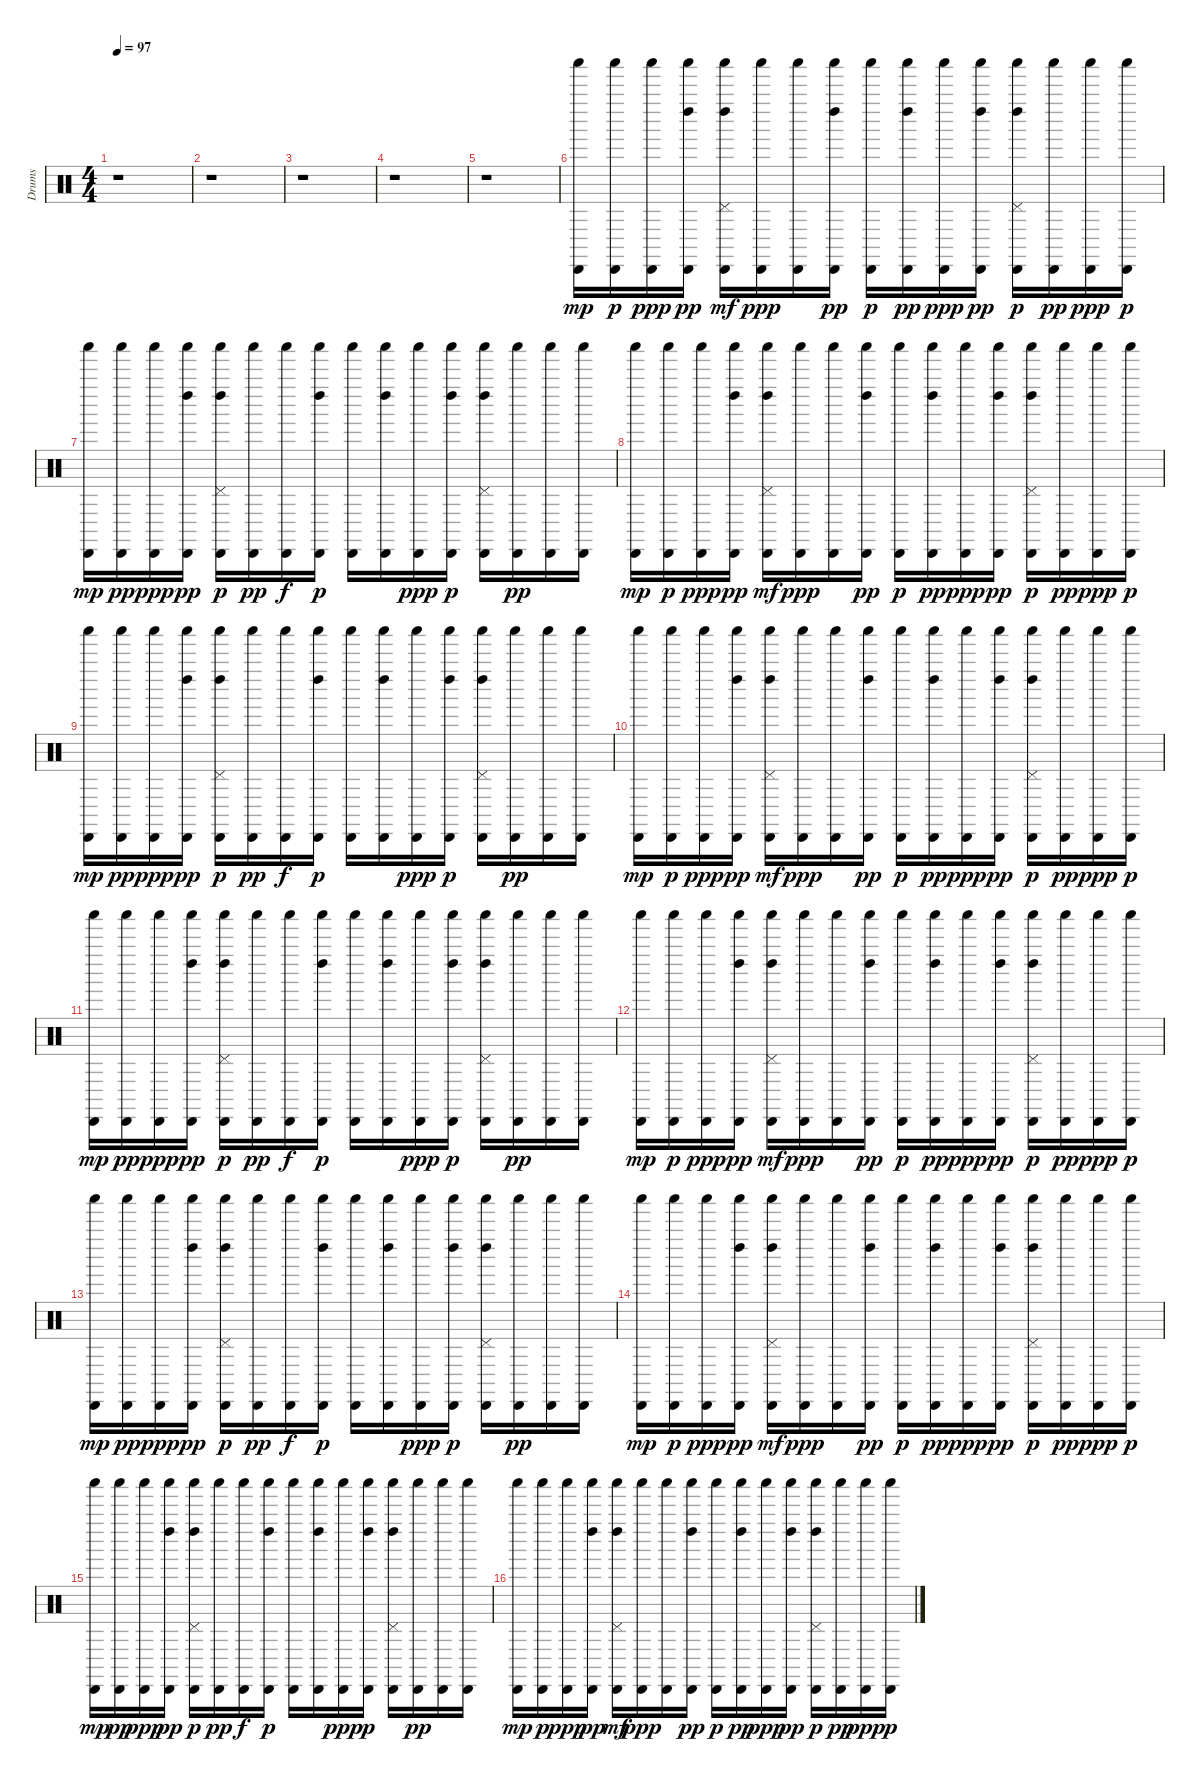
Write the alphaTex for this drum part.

\track ("Drums" "Drums") {instrument percussion}
\staff {score}
\articulation defaults
\ts (4 4)
\tempo 97
\clef neutral
\ks c
r.1{dy mp} |
r.1 |
r.1 |
r.1 |
r.1 |
("Shaker (hit)" "Cabasa (hit)").16 ("Shaker (hit)" "Cabasa (hit)").16{dy p} ("Shaker (hit)" "Cabasa (hit)").16{dy ppp} ("Shaker (hit)" "Cabasa (hit)" "Left Maraca (hit)").16{dy pp} ("Left Maraca (hit)" "Shaker (hit)" "Cabasa (hit)" "Pedal Hi-Hat (hit)").16{dy mf} ("Cabasa (hit)" "Shaker (hit)").16{dy ppp} ("Shaker (hit)" "Cabasa (hit)").16 ("Left Maraca (hit)" "Cabasa (hit)" "Shaker (hit)").16{dy pp} ("Cabasa (hit)" "Shaker (hit)").16{dy p} ("Left Maraca (hit)" "Cabasa (hit)" "Shaker (hit)").16{dy pp} ("Shaker (hit)" "Cabasa (hit)").16{dy ppp} ("Shaker (hit)" "Cabasa (hit)" "Left Maraca (hit)").16{dy pp} ("Left Maraca (hit)" "Shaker (hit)" "Cabasa (hit)" "Pedal Hi-Hat (hit)").16{dy p} ("Cabasa (hit)" "Shaker (hit)").16{dy pp} ("Shaker (hit)" "Cabasa (hit)").16{dy ppp} ("Shaker (hit)" "Cabasa (hit)").16{dy p} |
("Shaker (hit)" "Cabasa (hit)").16{dy mp} ("Cabasa (hit)" "Shaker (hit)").16{dy pp} ("Shaker (hit)" "Cabasa (hit)").16{dy ppp} ("Shaker (hit)" "Cabasa (hit)" "Left Maraca (hit)").16{dy pp} ("Shaker (hit)" "Cabasa (hit)" "Pedal Hi-Hat (hit)" "Left Maraca (hit)").16{dy p} ("Shaker (hit)" "Cabasa (hit)").16{dy pp} ("Shaker (hit)" "Cabasa (hit)").16{dy f} ("Shaker (hit)" "Cabasa (hit)" "Left Maraca (hit)").16{dy p} ("Cabasa (hit)" "Shaker (hit)").16 ("Shaker (hit)" "Cabasa (hit)" "Left Maraca (hit)").16 ("Shaker (hit)" "Cabasa (hit)").16{dy ppp} ("Shaker (hit)" "Cabasa (hit)" "Left Maraca (hit)").16{dy p} ("Pedal Hi-Hat (hit)" "Shaker (hit)" "Cabasa (hit)" "Left Maraca (hit)").16 ("Shaker (hit)" "Cabasa (hit)").16{dy pp} ("Cabasa (hit)" "Shaker (hit)").16 ("Cabasa (hit)" "Shaker (hit)").16 |
("Shaker (hit)" "Cabasa (hit)").16{dy mp} ("Shaker (hit)" "Cabasa (hit)").16{dy p} ("Shaker (hit)" "Cabasa (hit)").16{dy ppp} ("Shaker (hit)" "Cabasa (hit)" "Left Maraca (hit)").16{dy pp} ("Left Maraca (hit)" "Shaker (hit)" "Cabasa (hit)" "Pedal Hi-Hat (hit)").16{dy mf} ("Cabasa (hit)" "Shaker (hit)").16{dy ppp} ("Shaker (hit)" "Cabasa (hit)").16 ("Left Maraca (hit)" "Cabasa (hit)" "Shaker (hit)").16{dy pp} ("Cabasa (hit)" "Shaker (hit)").16{dy p} ("Left Maraca (hit)" "Cabasa (hit)" "Shaker (hit)").16{dy pp} ("Shaker (hit)" "Cabasa (hit)").16{dy ppp} ("Shaker (hit)" "Cabasa (hit)" "Left Maraca (hit)").16{dy pp} ("Left Maraca (hit)" "Shaker (hit)" "Cabasa (hit)" "Pedal Hi-Hat (hit)").16{dy p} ("Cabasa (hit)" "Shaker (hit)").16{dy pp} ("Shaker (hit)" "Cabasa (hit)").16{dy ppp} ("Shaker (hit)" "Cabasa (hit)").16{dy p} |
("Shaker (hit)" "Cabasa (hit)").16{dy mp} ("Cabasa (hit)" "Shaker (hit)").16{dy pp} ("Shaker (hit)" "Cabasa (hit)").16{dy ppp} ("Shaker (hit)" "Cabasa (hit)" "Left Maraca (hit)").16{dy pp} ("Shaker (hit)" "Cabasa (hit)" "Pedal Hi-Hat (hit)" "Left Maraca (hit)").16{dy p} ("Shaker (hit)" "Cabasa (hit)").16{dy pp} ("Shaker (hit)" "Cabasa (hit)").16{dy f} ("Shaker (hit)" "Cabasa (hit)" "Left Maraca (hit)").16{dy p} ("Cabasa (hit)" "Shaker (hit)").16 ("Shaker (hit)" "Cabasa (hit)" "Left Maraca (hit)").16 ("Shaker (hit)" "Cabasa (hit)").16{dy ppp} ("Shaker (hit)" "Cabasa (hit)" "Left Maraca (hit)").16{dy p} ("Pedal Hi-Hat (hit)" "Shaker (hit)" "Cabasa (hit)" "Left Maraca (hit)").16 ("Shaker (hit)" "Cabasa (hit)").16{dy pp} ("Cabasa (hit)" "Shaker (hit)").16 ("Cabasa (hit)" "Shaker (hit)").16 |
("Shaker (hit)" "Cabasa (hit)").16{dy mp} ("Shaker (hit)" "Cabasa (hit)").16{dy p} ("Shaker (hit)" "Cabasa (hit)").16{dy ppp} ("Shaker (hit)" "Cabasa (hit)" "Left Maraca (hit)").16{dy pp} ("Left Maraca (hit)" "Shaker (hit)" "Cabasa (hit)" "Pedal Hi-Hat (hit)").16{dy mf} ("Cabasa (hit)" "Shaker (hit)").16{dy ppp} ("Shaker (hit)" "Cabasa (hit)").16 ("Left Maraca (hit)" "Cabasa (hit)" "Shaker (hit)").16{dy pp} ("Cabasa (hit)" "Shaker (hit)").16{dy p} ("Left Maraca (hit)" "Cabasa (hit)" "Shaker (hit)").16{dy pp} ("Shaker (hit)" "Cabasa (hit)").16{dy ppp} ("Shaker (hit)" "Cabasa (hit)" "Left Maraca (hit)").16{dy pp} ("Left Maraca (hit)" "Shaker (hit)" "Cabasa (hit)" "Pedal Hi-Hat (hit)").16{dy p} ("Cabasa (hit)" "Shaker (hit)").16{dy pp} ("Shaker (hit)" "Cabasa (hit)").16{dy ppp} ("Shaker (hit)" "Cabasa (hit)").16{dy p} |
("Shaker (hit)" "Cabasa (hit)").16{dy mp} ("Cabasa (hit)" "Shaker (hit)").16{dy pp} ("Shaker (hit)" "Cabasa (hit)").16{dy ppp} ("Shaker (hit)" "Cabasa (hit)" "Left Maraca (hit)").16{dy pp} ("Shaker (hit)" "Cabasa (hit)" "Pedal Hi-Hat (hit)" "Left Maraca (hit)").16{dy p} ("Shaker (hit)" "Cabasa (hit)").16{dy pp} ("Shaker (hit)" "Cabasa (hit)").16{dy f} ("Shaker (hit)" "Cabasa (hit)" "Left Maraca (hit)").16{dy p} ("Cabasa (hit)" "Shaker (hit)").16 ("Shaker (hit)" "Cabasa (hit)" "Left Maraca (hit)").16 ("Shaker (hit)" "Cabasa (hit)").16{dy ppp} ("Shaker (hit)" "Cabasa (hit)" "Left Maraca (hit)").16{dy p} ("Pedal Hi-Hat (hit)" "Shaker (hit)" "Cabasa (hit)" "Left Maraca (hit)").16 ("Shaker (hit)" "Cabasa (hit)").16{dy pp} ("Cabasa (hit)" "Shaker (hit)").16 ("Cabasa (hit)" "Shaker (hit)").16 |
("Shaker (hit)" "Cabasa (hit)").16{dy mp} ("Shaker (hit)" "Cabasa (hit)").16{dy p} ("Shaker (hit)" "Cabasa (hit)").16{dy ppp} ("Shaker (hit)" "Cabasa (hit)" "Left Maraca (hit)").16{dy pp} ("Left Maraca (hit)" "Shaker (hit)" "Cabasa (hit)" "Pedal Hi-Hat (hit)").16{dy mf} ("Cabasa (hit)" "Shaker (hit)").16{dy ppp} ("Shaker (hit)" "Cabasa (hit)").16 ("Left Maraca (hit)" "Cabasa (hit)" "Shaker (hit)").16{dy pp} ("Cabasa (hit)" "Shaker (hit)").16{dy p} ("Left Maraca (hit)" "Cabasa (hit)" "Shaker (hit)").16{dy pp} ("Shaker (hit)" "Cabasa (hit)").16{dy ppp} ("Shaker (hit)" "Cabasa (hit)" "Left Maraca (hit)").16{dy pp} ("Left Maraca (hit)" "Shaker (hit)" "Cabasa (hit)" "Pedal Hi-Hat (hit)").16{dy p} ("Cabasa (hit)" "Shaker (hit)").16{dy pp} ("Shaker (hit)" "Cabasa (hit)").16{dy ppp} ("Shaker (hit)" "Cabasa (hit)").16{dy p} |
("Shaker (hit)" "Cabasa (hit)").16{dy mp} ("Cabasa (hit)" "Shaker (hit)").16{dy pp} ("Shaker (hit)" "Cabasa (hit)").16{dy ppp} ("Shaker (hit)" "Cabasa (hit)" "Left Maraca (hit)").16{dy pp} ("Shaker (hit)" "Cabasa (hit)" "Pedal Hi-Hat (hit)" "Left Maraca (hit)").16{dy p} ("Shaker (hit)" "Cabasa (hit)").16{dy pp} ("Shaker (hit)" "Cabasa (hit)").16{dy f} ("Shaker (hit)" "Cabasa (hit)" "Left Maraca (hit)").16{dy p} ("Cabasa (hit)" "Shaker (hit)").16 ("Shaker (hit)" "Cabasa (hit)" "Left Maraca (hit)").16 ("Shaker (hit)" "Cabasa (hit)").16{dy ppp} ("Shaker (hit)" "Cabasa (hit)" "Left Maraca (hit)").16{dy p} ("Pedal Hi-Hat (hit)" "Shaker (hit)" "Cabasa (hit)" "Left Maraca (hit)").16 ("Shaker (hit)" "Cabasa (hit)").16{dy pp} ("Cabasa (hit)" "Shaker (hit)").16 ("Cabasa (hit)" "Shaker (hit)").16 |
("Shaker (hit)" "Cabasa (hit)").16{dy mp} ("Shaker (hit)" "Cabasa (hit)").16{dy p} ("Shaker (hit)" "Cabasa (hit)").16{dy ppp} ("Shaker (hit)" "Cabasa (hit)" "Left Maraca (hit)").16{dy pp} ("Left Maraca (hit)" "Shaker (hit)" "Cabasa (hit)" "Pedal Hi-Hat (hit)").16{dy mf} ("Cabasa (hit)" "Shaker (hit)").16{dy ppp} ("Shaker (hit)" "Cabasa (hit)").16 ("Left Maraca (hit)" "Cabasa (hit)" "Shaker (hit)").16{dy pp} ("Cabasa (hit)" "Shaker (hit)").16{dy p} ("Left Maraca (hit)" "Cabasa (hit)" "Shaker (hit)").16{dy pp} ("Shaker (hit)" "Cabasa (hit)").16{dy ppp} ("Shaker (hit)" "Cabasa (hit)" "Left Maraca (hit)").16{dy pp} ("Left Maraca (hit)" "Shaker (hit)" "Cabasa (hit)" "Pedal Hi-Hat (hit)").16{dy p} ("Cabasa (hit)" "Shaker (hit)").16{dy pp} ("Shaker (hit)" "Cabasa (hit)").16{dy ppp} ("Shaker (hit)" "Cabasa (hit)").16{dy p} |
("Shaker (hit)" "Cabasa (hit)").16{dy mp} ("Cabasa (hit)" "Shaker (hit)").16{dy pp} ("Shaker (hit)" "Cabasa (hit)").16{dy ppp} ("Shaker (hit)" "Cabasa (hit)" "Left Maraca (hit)").16{dy pp} ("Shaker (hit)" "Cabasa (hit)" "Pedal Hi-Hat (hit)" "Left Maraca (hit)").16{dy p} ("Shaker (hit)" "Cabasa (hit)").16{dy pp} ("Shaker (hit)" "Cabasa (hit)").16{dy f} ("Shaker (hit)" "Cabasa (hit)" "Left Maraca (hit)").16{dy p} ("Cabasa (hit)" "Shaker (hit)").16 ("Shaker (hit)" "Cabasa (hit)" "Left Maraca (hit)").16 ("Shaker (hit)" "Cabasa (hit)").16{dy ppp} ("Shaker (hit)" "Cabasa (hit)" "Left Maraca (hit)").16{dy p} ("Pedal Hi-Hat (hit)" "Shaker (hit)" "Cabasa (hit)" "Left Maraca (hit)").16 ("Shaker (hit)" "Cabasa (hit)").16{dy pp} ("Cabasa (hit)" "Shaker (hit)").16 ("Cabasa (hit)" "Shaker (hit)").16 |
("Shaker (hit)" "Cabasa (hit)").16{dy mp} ("Shaker (hit)" "Cabasa (hit)").16{dy p} ("Shaker (hit)" "Cabasa (hit)").16{dy ppp} ("Shaker (hit)" "Cabasa (hit)" "Left Maraca (hit)").16{dy pp} ("Left Maraca (hit)" "Shaker (hit)" "Cabasa (hit)" "Pedal Hi-Hat (hit)").16{dy mf} ("Cabasa (hit)" "Shaker (hit)").16{dy ppp} ("Shaker (hit)" "Cabasa (hit)").16 ("Left Maraca (hit)" "Cabasa (hit)" "Shaker (hit)").16{dy pp} ("Cabasa (hit)" "Shaker (hit)").16{dy p} ("Left Maraca (hit)" "Cabasa (hit)" "Shaker (hit)").16{dy pp} ("Shaker (hit)" "Cabasa (hit)").16{dy ppp} ("Shaker (hit)" "Cabasa (hit)" "Left Maraca (hit)").16{dy pp} ("Left Maraca (hit)" "Shaker (hit)" "Cabasa (hit)" "Pedal Hi-Hat (hit)").16{dy p} ("Cabasa (hit)" "Shaker (hit)").16{dy pp} ("Shaker (hit)" "Cabasa (hit)").16{dy ppp} ("Shaker (hit)" "Cabasa (hit)").16{dy p}
